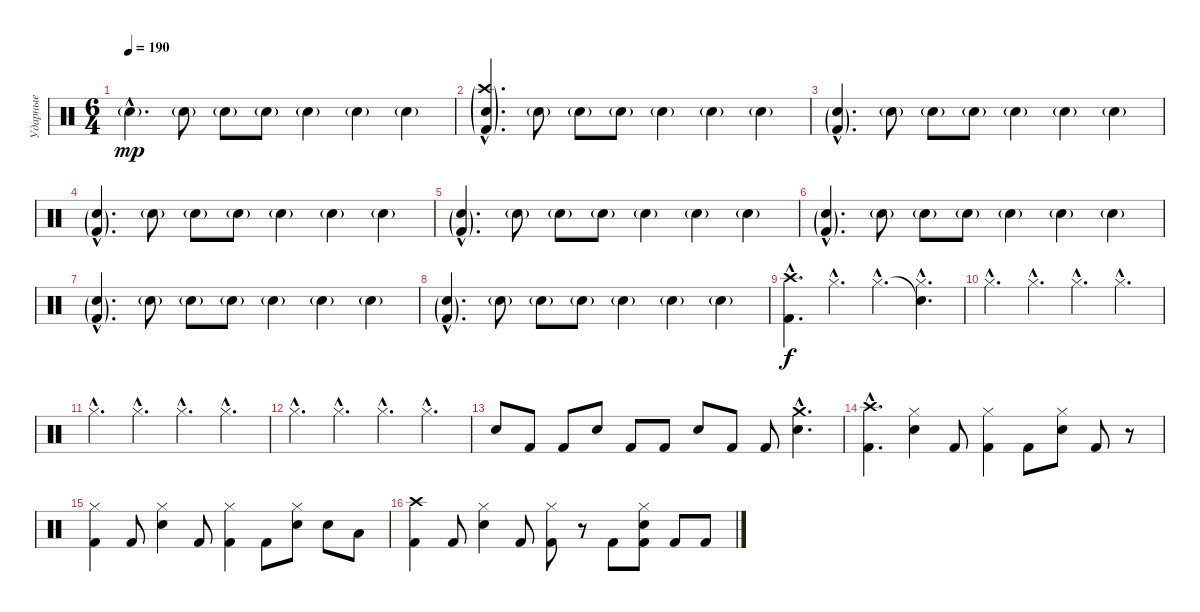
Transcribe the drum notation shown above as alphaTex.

\track ("Ударные" "Ударные") {instrument percussion}
\staff {score}
\articulation defaults
\ts (6 4)
\tempo 190
\clef neutral
\ks c "Electric Snare (hit)"{g hac}.4{d dy mp} "Electric Snare (hit)"{g}.8 "Electric Snare (hit)"{g}.8 "Electric Snare (hit)"{g}.8 "Electric Snare (hit)"{g}.4 "Electric Snare (hit)"{g}.4 "Electric Snare (hit)"{g}.4
|
("Crash high (hit)"{g hac} "Electric Snare (hit)"{g hac} "Kick (hit) 2"{g hac}).4{d} "Electric Snare (hit)"{g}.8 "Electric Snare (hit)"{g}.8 "Electric Snare (hit)"{g}.8 "Electric Snare (hit)"{g}.4 "Electric Snare (hit)"{g}.4 "Electric Snare (hit)"{g}.4 |
("Electric Snare (hit)"{g hac} "Kick (hit) 2"{g hac}).4{d} "Electric Snare (hit)"{g}.8 "Electric Snare (hit)"{g}.8 "Electric Snare (hit)"{g}.8 "Electric Snare (hit)"{g}.4 "Electric Snare (hit)"{g}.4 "Electric Snare (hit)"{g}.4 |
("Electric Snare (hit)"{g hac} "Kick (hit) 2"{g hac}).4{d} "Electric Snare (hit)"{g}.8 "Electric Snare (hit)"{g}.8 "Electric Snare (hit)"{g}.8 "Electric Snare (hit)"{g}.4 "Electric Snare (hit)"{g}.4 "Electric Snare (hit)"{g}.4 |
("Electric Snare (hit)"{g hac} "Kick (hit) 2"{g hac}).4{d} "Electric Snare (hit)"{g}.8 "Electric Snare (hit)"{g}.8 "Electric Snare (hit)"{g}.8 "Electric Snare (hit)"{g}.4 "Electric Snare (hit)"{g}.4 "Electric Snare (hit)"{g}.4 |
("Electric Snare (hit)"{g hac} "Kick (hit) 2"{g hac}).4{d} "Electric Snare (hit)"{g}.8 "Electric Snare (hit)"{g}.8 "Electric Snare (hit)"{g}.8 "Electric Snare (hit)"{g}.4 "Electric Snare (hit)"{g}.4 "Electric Snare (hit)"{g}.4 |
("Electric Snare (hit)"{g hac} "Kick (hit) 2"{g hac}).4{d} "Electric Snare (hit)"{g}.8 "Electric Snare (hit)"{g}.8 "Electric Snare (hit)"{g}.8 "Electric Snare (hit)"{g}.4 "Electric Snare (hit)"{g}.4 "Electric Snare (hit)"{g}.4 |
("Electric Snare (hit)"{g hac} "Kick (hit) 2"{g hac}).4{d} "Electric Snare (hit)"{g}.8 "Electric Snare (hit)"{g}.8 "Electric Snare (hit)"{g}.8 "Electric Snare (hit)"{g}.4 "Electric Snare (hit)"{g}.4 "Electric Snare (hit)"{g}.4 |
("Crash high (hit)"{hac} "Kick (hit) 2"{hac}).4{d dy f} "Hi-Hat (closed)"{hac}.4{d} "Hi-Hat (closed)"{hac}.4{d} ("Snare (hit)"{hac t} "Hi-Hat (closed)"{hac}).4{d} |
"Hi-Hat (closed)"{hac}.4{d} "Hi-Hat (closed)"{hac}.4{d} "Hi-Hat (closed)"{hac}.4{d} "Hi-Hat (closed)"{hac}.4{d} |
"Hi-Hat (closed)"{hac}.4{d} "Hi-Hat (closed)"{hac}.4{d} "Hi-Hat (closed)"{hac}.4{d} "Hi-Hat (closed)"{hac}.4{d} |
"Hi-Hat (closed)"{hac}.4{d} "Hi-Hat (closed)"{hac}.4{d} "Hi-Hat (closed)"{hac}.4{d} "Hi-Hat (closed)"{hac}.4{d} |
"Electric Snare (hit)".8 "Kick (hit) 2".8 "Kick (hit) 2".8 "Electric Snare (hit)".8 "Kick (hit) 2".8 "Kick (hit) 2".8 "Electric Snare (hit)".8 "Kick (hit) 2".8 "Kick (hit) 2".8 ("Crash medium (hit)"{hac} "Electric Snare (hit)"{hac}).4{d} |
("Crash high (hit)"{hac} "Kick (hit) 2"{hac}).4{d} ("Hi-Hat (closed)" "Electric Snare (hit)").4 "Kick (hit) 2".8 ("Hi-Hat (closed)" "Kick (hit) 2").4 "Kick (hit) 2".8 ("Hi-Hat (closed)" "Electric Snare (hit)").8 "Kick (hit) 2".8 r.8 |
("Hi-Hat (closed)" "Kick (hit) 2").4 "Kick (hit) 2".8 ("Hi-Hat (closed)" "Electric Snare (hit)").4 "Kick (hit) 2".8 ("Hi-Hat (closed)" "Kick (hit) 2").4 "Kick (hit) 2".8 ("Hi-Hat (closed)" "Electric Snare (hit)").8 "Electric Snare (hit)".8 "Low Tom (hit)".8 |
("Crash high (hit)" "Kick (hit) 2").4 "Kick (hit) 2".8 ("Hi-Hat (closed)" "Electric Snare (hit)").4 "Kick (hit) 2".8 ("Hi-Hat (closed)" "Kick (hit) 2").8 r.8 "Kick (hit) 2".8 ("Hi-Hat (closed)" "Electric Snare (hit)" "Kick (hit) 2").8 "Kick (hit) 2".8 "Kick (hit) 2".8
